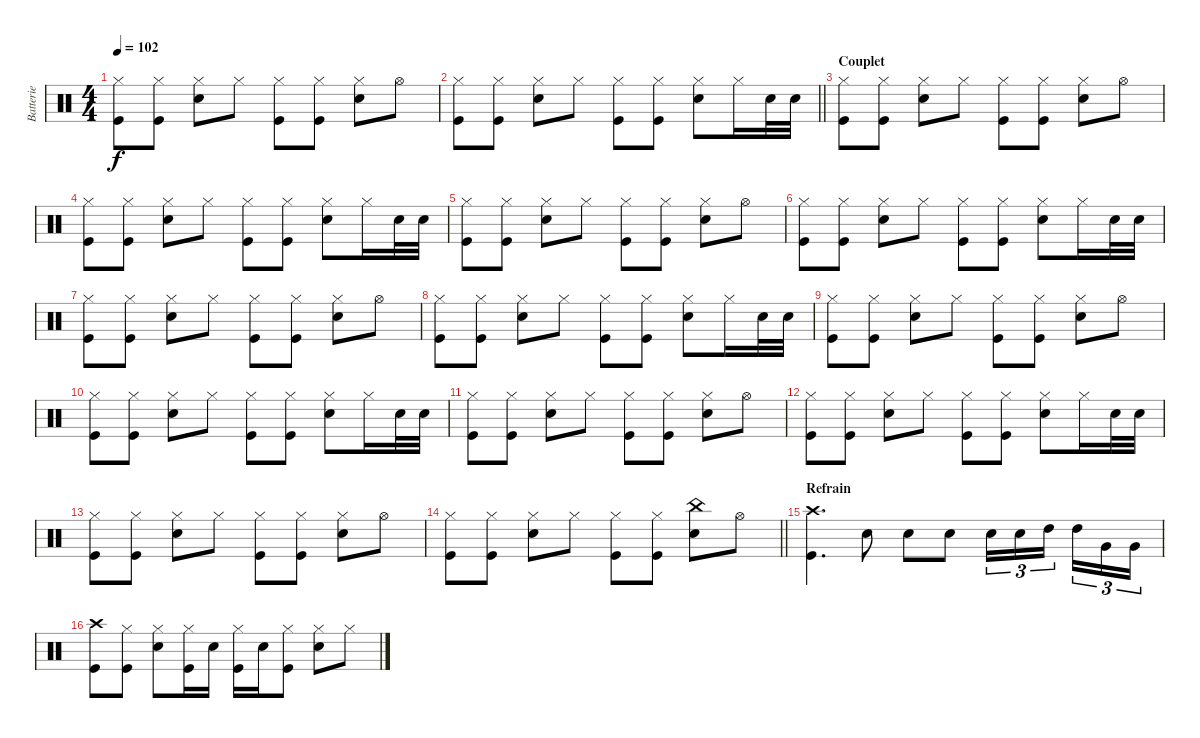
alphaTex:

\track ("Batterie" "Batterie") {instrument percussion}
\staff {score}
\articulation defaults
\ts (4 4)
\tempo 102
\clef neutral
\ks c
("Kick (hit)" "Hi-Hat (closed)").8{dy f} ("Kick (hit)" "Hi-Hat (closed)").8 ("Snare (hit) 2" "Hi-Hat (closed)").8 "Hi-Hat (closed)".8 ("Kick (hit)" "Hi-Hat (closed)").8 ("Kick (hit)" "Hi-Hat (closed)").8 ("Snare (hit) 2" "Hi-Hat (closed)").8 "Hi-Hat (open)".8 |
\barLineRight lightlight
("Kick (hit)" "Hi-Hat (closed)").8 ("Kick (hit)" "Hi-Hat (closed)").8 ("Snare (hit) 2" "Hi-Hat (closed)").8 "Hi-Hat (closed)".8 ("Kick (hit)" "Hi-Hat (closed)").8 ("Kick (hit)" "Hi-Hat (closed)").8 ("Snare (hit) 2" "Hi-Hat (closed)").8 "Hi-Hat (closed)".16 "Snare (hit) 2".32 "Snare (hit) 2".32 |
\section ("" "Couplet")
("Kick (hit)" "Hi-Hat (closed)").8 ("Kick (hit)" "Hi-Hat (closed)").8 ("Snare (hit) 2" "Hi-Hat (closed)").8 "Hi-Hat (closed)".8 ("Kick (hit)" "Hi-Hat (closed)").8 ("Kick (hit)" "Hi-Hat (closed)").8 ("Snare (hit) 2" "Hi-Hat (closed)").8 "Hi-Hat (open)".8 |
("Kick (hit)" "Hi-Hat (closed)").8 ("Kick (hit)" "Hi-Hat (closed)").8 ("Snare (hit) 2" "Hi-Hat (closed)").8 "Hi-Hat (closed)".8 ("Kick (hit)" "Hi-Hat (closed)").8 ("Kick (hit)" "Hi-Hat (closed)").8 ("Snare (hit) 2" "Hi-Hat (closed)").8 "Hi-Hat (closed)".16 "Snare (hit) 2".32 "Snare (hit) 2".32 |
("Kick (hit)" "Hi-Hat (closed)").8 ("Kick (hit)" "Hi-Hat (closed)").8 ("Snare (hit) 2" "Hi-Hat (closed)").8 "Hi-Hat (closed)".8 ("Kick (hit)" "Hi-Hat (closed)").8 ("Kick (hit)" "Hi-Hat (closed)").8 ("Snare (hit) 2" "Hi-Hat (closed)").8 "Hi-Hat (open)".8 |
("Kick (hit)" "Hi-Hat (closed)").8 ("Kick (hit)" "Hi-Hat (closed)").8 ("Snare (hit) 2" "Hi-Hat (closed)").8 "Hi-Hat (closed)".8 ("Kick (hit)" "Hi-Hat (closed)").8 ("Kick (hit)" "Hi-Hat (closed)").8 ("Snare (hit) 2" "Hi-Hat (closed)").8 "Hi-Hat (closed)".16 "Snare (hit) 2".32 "Snare (hit) 2".32 |
("Kick (hit)" "Hi-Hat (closed)").8 ("Kick (hit)" "Hi-Hat (closed)").8 ("Snare (hit) 2" "Hi-Hat (closed)").8 "Hi-Hat (closed)".8 ("Kick (hit)" "Hi-Hat (closed)").8 ("Kick (hit)" "Hi-Hat (closed)").8 ("Snare (hit) 2" "Hi-Hat (closed)").8 "Hi-Hat (open)".8 |
("Kick (hit)" "Hi-Hat (closed)").8 ("Kick (hit)" "Hi-Hat (closed)").8 ("Snare (hit) 2" "Hi-Hat (closed)").8 "Hi-Hat (closed)".8 ("Kick (hit)" "Hi-Hat (closed)").8 ("Kick (hit)" "Hi-Hat (closed)").8 ("Snare (hit) 2" "Hi-Hat (closed)").8 "Hi-Hat (closed)".16 "Snare (hit) 2".32 "Snare (hit) 2".32 |
("Kick (hit)" "Hi-Hat (closed)").8 ("Kick (hit)" "Hi-Hat (closed)").8 ("Snare (hit) 2" "Hi-Hat (closed)").8 "Hi-Hat (closed)".8 ("Kick (hit)" "Hi-Hat (closed)").8 ("Kick (hit)" "Hi-Hat (closed)").8 ("Snare (hit) 2" "Hi-Hat (closed)").8 "Hi-Hat (open)".8 |
("Kick (hit)" "Hi-Hat (closed)").8 ("Kick (hit)" "Hi-Hat (closed)").8 ("Snare (hit) 2" "Hi-Hat (closed)").8 "Hi-Hat (closed)".8 ("Kick (hit)" "Hi-Hat (closed)").8 ("Kick (hit)" "Hi-Hat (closed)").8 ("Snare (hit) 2" "Hi-Hat (closed)").8 "Hi-Hat (closed)".16 "Snare (hit) 2".32 "Snare (hit) 2".32 |
("Kick (hit)" "Hi-Hat (closed)").8 ("Kick (hit)" "Hi-Hat (closed)").8 ("Snare (hit) 2" "Hi-Hat (closed)").8 "Hi-Hat (closed)".8 ("Kick (hit)" "Hi-Hat (closed)").8 ("Kick (hit)" "Hi-Hat (closed)").8 ("Snare (hit) 2" "Hi-Hat (closed)").8 "Hi-Hat (open)".8 |
("Kick (hit)" "Hi-Hat (closed)").8 ("Kick (hit)" "Hi-Hat (closed)").8 ("Snare (hit) 2" "Hi-Hat (closed)").8 "Hi-Hat (closed)".8 ("Kick (hit)" "Hi-Hat (closed)").8 ("Kick (hit)" "Hi-Hat (closed)").8 ("Snare (hit) 2" "Hi-Hat (closed)").8 "Hi-Hat (closed)".16 "Snare (hit) 2".32 "Snare (hit) 2".32 |
("Kick (hit)" "Hi-Hat (closed)").8 ("Kick (hit)" "Hi-Hat (closed)").8 ("Snare (hit) 2" "Hi-Hat (closed)").8 "Hi-Hat (closed)".8 ("Kick (hit)" "Hi-Hat (closed)").8 ("Kick (hit)" "Hi-Hat (closed)").8 ("Snare (hit) 2" "Hi-Hat (closed)").8 "Hi-Hat (open)".8 |
\barLineRight lightlight
("Kick (hit)" "Hi-Hat (closed)").8 ("Kick (hit)" "Hi-Hat (closed)").8 ("Snare (hit) 2" "Hi-Hat (closed)").8 "Hi-Hat (closed)".8 ("Kick (hit)" "Hi-Hat (closed)").8 ("Kick (hit)" "Hi-Hat (closed)").8 ("Snare (hit) 2" "China (hit)").8 "Hi-Hat (open)".8 |
\section ("" "Refrain")
("Kick (hit)" "Crash high (hit)").4{d} "Snare (hit) 2".8 "Snare (hit) 2".8 "Snare (hit) 2".8 "Snare (hit) 2".16{tu (3 2)} "Snare (hit) 2".16{tu (3 2)} "High Tom (hit)".16{tu (3 2)} "High Tom (hit)".16{tu (3 2)} "Very Low Tom (hit)".16{tu (3 2)} "Very Low Tom (hit)".16{tu (3 2)} |
("Kick (hit)" "Crash high (hit)").8 ("Kick (hit)" "Hi-Hat (closed)").8 ("Snare (hit) 2" "Hi-Hat (closed)").8 ("Kick (hit)" "Hi-Hat (closed)").16 "Snare (hit) 2".16 ("Kick (hit)" "Hi-Hat (closed)").16 "Snare (hit) 2".16 ("Kick (hit)" "Hi-Hat (closed)").8 ("Snare (hit) 2" "Hi-Hat (closed)").8 "Hi-Hat (closed)".8
